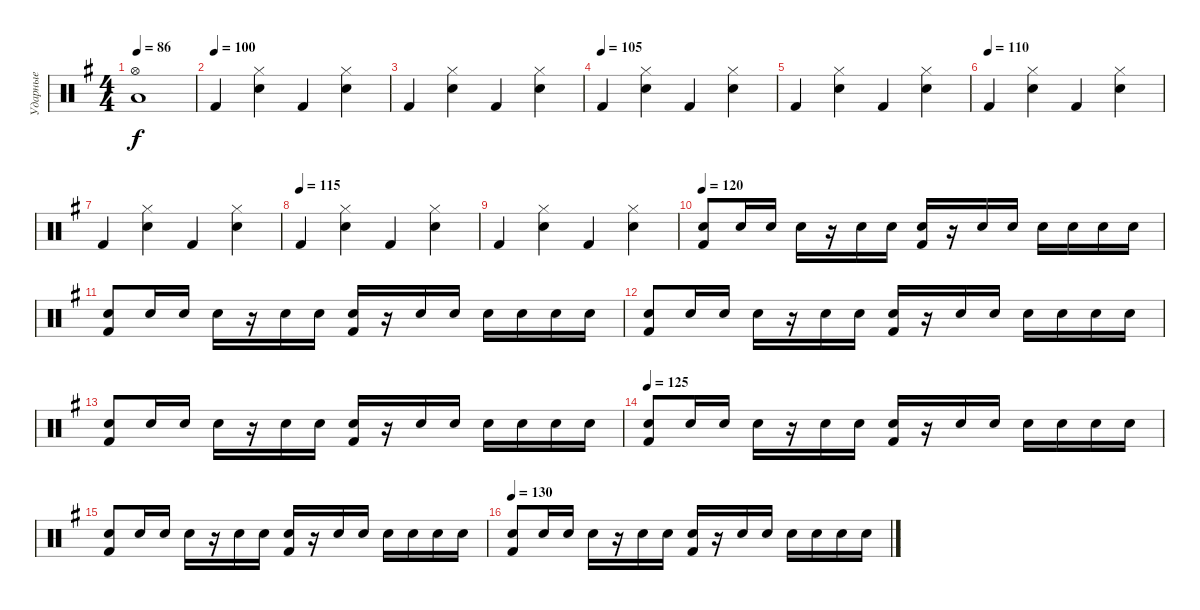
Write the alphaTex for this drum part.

\track ("Ударные" "Ударные") {instrument percussion}
\staff {score}
\articulation defaults
\ts (4 4)
\tempo 86
\clef neutral
\ks eminor
("Hi-Hat (open)" "Low Tom (hit)").1{dy f} |
\tempo (100)
"Kick (hit) 2".4 ("Hi-Hat (closed)" "Snare (hit) 2").4 "Kick (hit) 2".4 ("Hi-Hat (closed)" "Snare (hit) 2").4 |
"Kick (hit) 2".4 ("Hi-Hat (closed)" "Snare (hit) 2").4 "Kick (hit) 2".4 ("Hi-Hat (closed)" "Snare (hit) 2").4 |
\tempo (105)
"Kick (hit) 2".4 ("Hi-Hat (closed)" "Snare (hit) 2").4 "Kick (hit) 2".4 ("Hi-Hat (closed)" "Snare (hit) 2").4 |
"Kick (hit) 2".4 ("Hi-Hat (closed)" "Snare (hit) 2").4 "Kick (hit) 2".4 ("Hi-Hat (closed)" "Snare (hit) 2").4 |
\tempo (110)
"Kick (hit) 2".4 ("Hi-Hat (closed)" "Snare (hit) 2").4 "Kick (hit) 2".4 ("Hi-Hat (closed)" "Snare (hit) 2").4 |
"Kick (hit) 2".4 ("Hi-Hat (closed)" "Snare (hit) 2").4 "Kick (hit) 2".4 ("Hi-Hat (closed)" "Snare (hit) 2").4 |
\tempo (115)
"Kick (hit) 2".4 ("Hi-Hat (closed)" "Snare (hit) 2").4 "Kick (hit) 2".4 ("Hi-Hat (closed)" "Snare (hit) 2").4 |
"Kick (hit) 2".4 ("Hi-Hat (closed)" "Snare (hit) 2").4 "Kick (hit) 2".4 ("Hi-Hat (closed)" "Snare (hit) 2").4 |
\tempo 120
("Snare (hit) 2" "Kick (hit) 2").8 "Snare (hit) 2".16 "Snare (hit) 2".16 "Snare (hit) 2".16 r.16 "Snare (hit) 2".16 "Snare (hit) 2".16 ("Snare (hit) 2" "Kick (hit) 2").16 r.16 "Snare (hit) 2".16 "Snare (hit) 2".16 "Snare (hit) 2".16 "Snare (hit) 2".16 "Snare (hit) 2".16 "Snare (hit) 2".16 |
("Snare (hit) 2" "Kick (hit) 2").8 "Snare (hit) 2".16 "Snare (hit) 2".16 "Snare (hit) 2".16 r.16 "Snare (hit) 2".16 "Snare (hit) 2".16 ("Snare (hit) 2" "Kick (hit) 2").16 r.16 "Snare (hit) 2".16 "Snare (hit) 2".16 "Snare (hit) 2".16 "Snare (hit) 2".16 "Snare (hit) 2".16 "Snare (hit) 2".16 |
("Snare (hit) 2" "Kick (hit) 2").8 "Snare (hit) 2".16 "Snare (hit) 2".16 "Snare (hit) 2".16 r.16 "Snare (hit) 2".16 "Snare (hit) 2".16 ("Snare (hit) 2" "Kick (hit) 2").16 r.16 "Snare (hit) 2".16 "Snare (hit) 2".16 "Snare (hit) 2".16 "Snare (hit) 2".16 "Snare (hit) 2".16 "Snare (hit) 2".16 |
("Snare (hit) 2" "Kick (hit) 2").8 "Snare (hit) 2".16 "Snare (hit) 2".16 "Snare (hit) 2".16 r.16 "Snare (hit) 2".16 "Snare (hit) 2".16 ("Snare (hit) 2" "Kick (hit) 2").16 r.16 "Snare (hit) 2".16 "Snare (hit) 2".16 "Snare (hit) 2".16 "Snare (hit) 2".16 "Snare (hit) 2".16 "Snare (hit) 2".16 |
\tempo 125
("Snare (hit) 2" "Kick (hit) 2").8 "Snare (hit) 2".16 "Snare (hit) 2".16 "Snare (hit) 2".16 r.16 "Snare (hit) 2".16 "Snare (hit) 2".16 ("Snare (hit) 2" "Kick (hit) 2").16 r.16 "Snare (hit) 2".16 "Snare (hit) 2".16 "Snare (hit) 2".16 "Snare (hit) 2".16 "Snare (hit) 2".16 "Snare (hit) 2".16 |
("Snare (hit) 2" "Kick (hit) 2").8 "Snare (hit) 2".16 "Snare (hit) 2".16 "Snare (hit) 2".16 r.16 "Snare (hit) 2".16 "Snare (hit) 2".16 ("Snare (hit) 2" "Kick (hit) 2").16 r.16 "Snare (hit) 2".16 "Snare (hit) 2".16 "Snare (hit) 2".16 "Snare (hit) 2".16 "Snare (hit) 2".16 "Snare (hit) 2".16 |
\tempo 130
("Snare (hit) 2" "Kick (hit) 2").8 "Snare (hit) 2".16 "Snare (hit) 2".16 "Snare (hit) 2".16 r.16 "Snare (hit) 2".16 "Snare (hit) 2".16 ("Snare (hit) 2" "Kick (hit) 2").16 r.16 "Snare (hit) 2".16 "Snare (hit) 2".16 "Snare (hit) 2".16 "Snare (hit) 2".16 "Snare (hit) 2".16 "Snare (hit) 2".16
